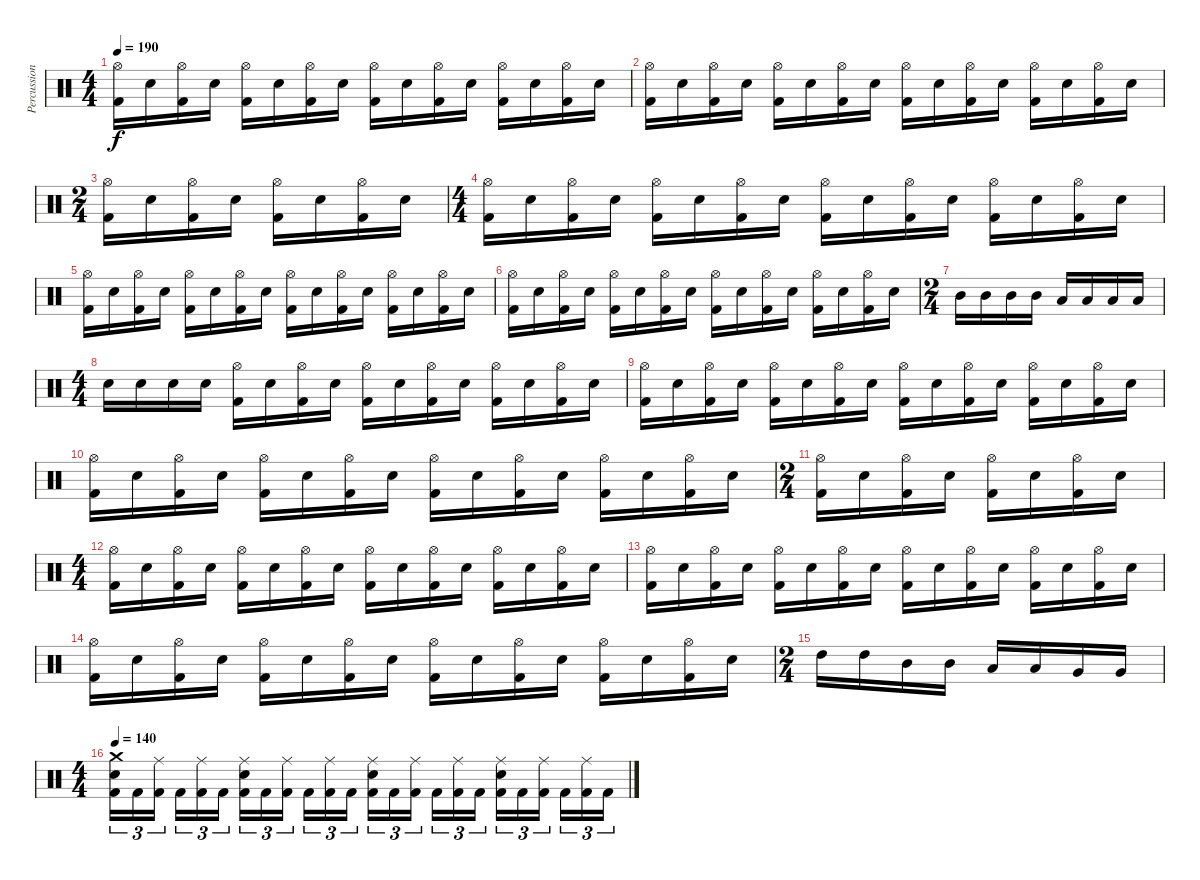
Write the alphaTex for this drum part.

\track ("Percussion" "Percussion") {instrument percussion}
\staff {score}
\articulation defaults
\ts (4 4)
\tempo 190
\clef neutral
\ks c
("Hi-Hat (open)" "Kick (hit) 2").16{dy f} "Electric Snare (hit)".16 ("Hi-Hat (open)" "Kick (hit) 2").16 "Electric Snare (hit)".16 ("Hi-Hat (open)" "Kick (hit) 2").16 "Electric Snare (hit)".16 ("Hi-Hat (open)" "Kick (hit) 2").16 "Electric Snare (hit)".16 ("Hi-Hat (open)" "Kick (hit) 2").16 "Electric Snare (hit)".16 ("Hi-Hat (open)" "Kick (hit) 2").16 "Electric Snare (hit)".16 ("Hi-Hat (open)" "Kick (hit) 2").16 "Electric Snare (hit)".16 ("Hi-Hat (open)" "Kick (hit) 2").16 "Electric Snare (hit)".16 |
("Hi-Hat (open)" "Kick (hit) 2").16 "Electric Snare (hit)".16 ("Hi-Hat (open)" "Kick (hit) 2").16 "Electric Snare (hit)".16 ("Hi-Hat (open)" "Kick (hit) 2").16 "Electric Snare (hit)".16 ("Hi-Hat (open)" "Kick (hit) 2").16 "Electric Snare (hit)".16 ("Hi-Hat (open)" "Kick (hit) 2").16 "Electric Snare (hit)".16 ("Hi-Hat (open)" "Kick (hit) 2").16 "Electric Snare (hit)".16 ("Hi-Hat (open)" "Kick (hit) 2").16 "Electric Snare (hit)".16 ("Hi-Hat (open)" "Kick (hit) 2").16 "Electric Snare (hit)".16 |
\ts (2 4)
("Hi-Hat (open)" "Kick (hit) 2").16 "Electric Snare (hit)".16 ("Hi-Hat (open)" "Kick (hit) 2").16 "Electric Snare (hit)".16 ("Hi-Hat (open)" "Kick (hit) 2").16 "Electric Snare (hit)".16 ("Hi-Hat (open)" "Kick (hit) 2").16 "Electric Snare (hit)".16 |
\ts (4 4)
("Hi-Hat (open)" "Kick (hit) 2").16 "Electric Snare (hit)".16 ("Hi-Hat (open)" "Kick (hit) 2").16 "Electric Snare (hit)".16 ("Hi-Hat (open)" "Kick (hit) 2").16 "Electric Snare (hit)".16 ("Hi-Hat (open)" "Kick (hit) 2").16 "Electric Snare (hit)".16 ("Hi-Hat (open)" "Kick (hit) 2").16 "Electric Snare (hit)".16 ("Hi-Hat (open)" "Kick (hit) 2").16 "Electric Snare (hit)".16 ("Hi-Hat (open)" "Kick (hit) 2").16 "Electric Snare (hit)".16 ("Hi-Hat (open)" "Kick (hit) 2").16 "Electric Snare (hit)".16 |
("Hi-Hat (open)" "Kick (hit) 2").16 "Electric Snare (hit)".16 ("Hi-Hat (open)" "Kick (hit) 2").16 "Electric Snare (hit)".16 ("Hi-Hat (open)" "Kick (hit) 2").16 "Electric Snare (hit)".16 ("Hi-Hat (open)" "Kick (hit) 2").16 "Electric Snare (hit)".16 ("Hi-Hat (open)" "Kick (hit) 2").16 "Electric Snare (hit)".16 ("Hi-Hat (open)" "Kick (hit) 2").16 "Electric Snare (hit)".16 ("Hi-Hat (open)" "Kick (hit) 2").16 "Electric Snare (hit)".16 ("Hi-Hat (open)" "Kick (hit) 2").16 "Electric Snare (hit)".16 |
("Hi-Hat (open)" "Kick (hit) 2").16 "Electric Snare (hit)".16 ("Hi-Hat (open)" "Kick (hit) 2").16 "Electric Snare (hit)".16 ("Hi-Hat (open)" "Kick (hit) 2").16 "Electric Snare (hit)".16 ("Hi-Hat (open)" "Kick (hit) 2").16 "Electric Snare (hit)".16 ("Hi-Hat (open)" "Kick (hit) 2").16 "Electric Snare (hit)".16 ("Hi-Hat (open)" "Kick (hit) 2").16 "Electric Snare (hit)".16 ("Hi-Hat (open)" "Kick (hit) 2").16 "Electric Snare (hit)".16 ("Hi-Hat (open)" "Kick (hit) 2").16 "Electric Snare (hit)".16 |
\ts (2 4)
"Mid Tom (hit)".16 "Mid Tom (hit)".16 "Mid Tom (hit)".16 "Mid Tom (hit)".16 "Low Tom (hit)".16 "Low Tom (hit)".16 "Low Tom (hit)".16 "Low Tom (hit)".16 |
\ts (4 4)
"Electric Snare (hit)".16 "Electric Snare (hit)".16 "Electric Snare (hit)".16 "Electric Snare (hit)".16 ("Hi-Hat (open)" "Kick (hit) 2").16 "Electric Snare (hit)".16 ("Hi-Hat (open)" "Kick (hit) 2").16 "Electric Snare (hit)".16 ("Hi-Hat (open)" "Kick (hit) 2").16 "Electric Snare (hit)".16 ("Hi-Hat (open)" "Kick (hit) 2").16 "Electric Snare (hit)".16 ("Hi-Hat (open)" "Kick (hit) 2").16 "Electric Snare (hit)".16 ("Hi-Hat (open)" "Kick (hit) 2").16 "Electric Snare (hit)".16 |
("Hi-Hat (open)" "Kick (hit) 2").16 "Electric Snare (hit)".16 ("Hi-Hat (open)" "Kick (hit) 2").16 "Electric Snare (hit)".16 ("Hi-Hat (open)" "Kick (hit) 2").16 "Electric Snare (hit)".16 ("Hi-Hat (open)" "Kick (hit) 2").16 "Electric Snare (hit)".16 ("Hi-Hat (open)" "Kick (hit) 2").16 "Electric Snare (hit)".16 ("Hi-Hat (open)" "Kick (hit) 2").16 "Electric Snare (hit)".16 ("Hi-Hat (open)" "Kick (hit) 2").16 "Electric Snare (hit)".16 ("Hi-Hat (open)" "Kick (hit) 2").16 "Electric Snare (hit)".16 |
("Hi-Hat (open)" "Kick (hit) 2").16 "Electric Snare (hit)".16 ("Hi-Hat (open)" "Kick (hit) 2").16 "Electric Snare (hit)".16 ("Hi-Hat (open)" "Kick (hit) 2").16 "Electric Snare (hit)".16 ("Hi-Hat (open)" "Kick (hit) 2").16 "Electric Snare (hit)".16 ("Hi-Hat (open)" "Kick (hit) 2").16 "Electric Snare (hit)".16 ("Hi-Hat (open)" "Kick (hit) 2").16 "Electric Snare (hit)".16 ("Hi-Hat (open)" "Kick (hit) 2").16 "Electric Snare (hit)".16 ("Hi-Hat (open)" "Kick (hit) 2").16 "Electric Snare (hit)".16 |
\ts (2 4)
("Hi-Hat (open)" "Kick (hit) 2").16 "Electric Snare (hit)".16 ("Hi-Hat (open)" "Kick (hit) 2").16 "Electric Snare (hit)".16 ("Hi-Hat (open)" "Kick (hit) 2").16 "Electric Snare (hit)".16 ("Hi-Hat (open)" "Kick (hit) 2").16 "Electric Snare (hit)".16 |
\ts (4 4)
("Hi-Hat (open)" "Kick (hit) 2").16 "Electric Snare (hit)".16 ("Hi-Hat (open)" "Kick (hit) 2").16 "Electric Snare (hit)".16 ("Hi-Hat (open)" "Kick (hit) 2").16 "Electric Snare (hit)".16 ("Hi-Hat (open)" "Kick (hit) 2").16 "Electric Snare (hit)".16 ("Hi-Hat (open)" "Kick (hit) 2").16 "Electric Snare (hit)".16 ("Hi-Hat (open)" "Kick (hit) 2").16 "Electric Snare (hit)".16 ("Hi-Hat (open)" "Kick (hit) 2").16 "Electric Snare (hit)".16 ("Hi-Hat (open)" "Kick (hit) 2").16 "Electric Snare (hit)".16 |
("Hi-Hat (open)" "Kick (hit) 2").16 "Electric Snare (hit)".16 ("Hi-Hat (open)" "Kick (hit) 2").16 "Electric Snare (hit)".16 ("Hi-Hat (open)" "Kick (hit) 2").16 "Electric Snare (hit)".16 ("Hi-Hat (open)" "Kick (hit) 2").16 "Electric Snare (hit)".16 ("Hi-Hat (open)" "Kick (hit) 2").16 "Electric Snare (hit)".16 ("Hi-Hat (open)" "Kick (hit) 2").16 "Electric Snare (hit)".16 ("Hi-Hat (open)" "Kick (hit) 2").16 "Electric Snare (hit)".16 ("Hi-Hat (open)" "Kick (hit) 2").16 "Electric Snare (hit)".16 |
("Hi-Hat (open)" "Kick (hit) 2").16 "Electric Snare (hit)".16 ("Hi-Hat (open)" "Kick (hit) 2").16 "Electric Snare (hit)".16 ("Hi-Hat (open)" "Kick (hit) 2").16 "Electric Snare (hit)".16 ("Hi-Hat (open)" "Kick (hit) 2").16 "Electric Snare (hit)".16 ("Hi-Hat (open)" "Kick (hit) 2").16 "Electric Snare (hit)".16 ("Hi-Hat (open)" "Kick (hit) 2").16 "Electric Snare (hit)".16 ("Hi-Hat (open)" "Kick (hit) 2").16 "Electric Snare (hit)".16 ("Hi-Hat (open)" "Kick (hit) 2").16 "Electric Snare (hit)".16 |
\ts (2 4)
"High Tom (hit)".16 "High Tom (hit)".16 "Mid Tom (hit)".16 "Mid Tom (hit)".16 "Low Tom (hit)".16 "Low Tom (hit)".16 "Very Low Tom (hit)".16 "Very Low Tom (hit)".16 |
\ts (4 4)
\tempo 140
("Crash medium (hit)" "Electric Snare (hit)" "Kick (hit) 2").16{tu (3 2)} "Kick (hit) 2".16{tu (3 2)} ("Ride (middle)" "Kick (hit) 2").16{tu (3 2)} "Kick (hit) 2".16{tu (3 2)} ("Ride (middle)" "Kick (hit) 2").16{tu (3 2)} "Kick (hit) 2".16{tu (3 2)} ("Ride (middle)" "Electric Snare (hit)" "Kick (hit) 2").16{tu (3 2)} "Kick (hit) 2".16{tu (3 2)} ("Ride (middle)" "Kick (hit) 2").16{tu (3 2)} "Kick (hit) 2".16{tu (3 2)} ("Ride (middle)" "Kick (hit) 2").16{tu (3 2)} "Kick (hit) 2".16{tu (3 2)} ("Ride (middle)" "Electric Snare (hit)" "Kick (hit) 2").16{tu (3 2)} "Kick (hit) 2".16{tu (3 2)} ("Ride (middle)" "Kick (hit) 2").16{tu (3 2)} "Kick (hit) 2".16{tu (3 2)} ("Ride (middle)" "Kick (hit) 2").16{tu (3 2)} "Kick (hit) 2".16{tu (3 2)} ("Ride (middle)" "Electric Snare (hit)" "Kick (hit) 2").16{tu (3 2)} "Kick (hit) 2".16{tu (3 2)} ("Ride (middle)" "Kick (hit) 2").16{tu (3 2)} "Kick (hit) 2".16{tu (3 2)} ("Ride (middle)" "Kick (hit) 2").16{tu (3 2)} "Kick (hit) 2".16{tu (3 2)}
